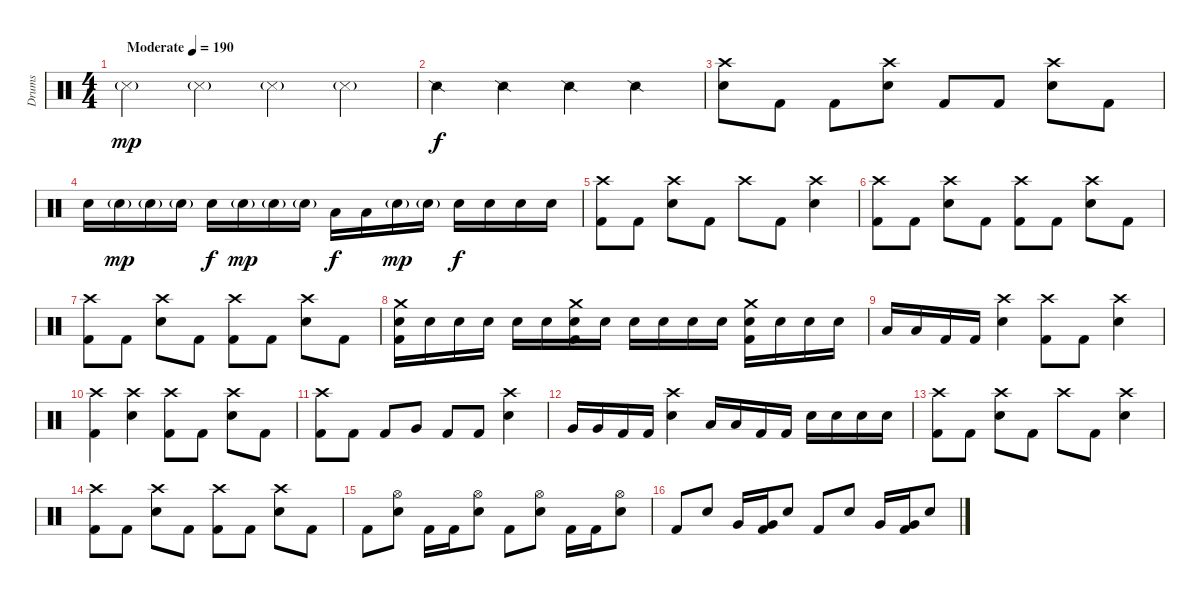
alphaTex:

\track ("Drums" "Drums") {instrument percussion}
\staff {score}
\articulation defaults
\ts (4 4)
\tempo (190 "Moderate")
\clef neutral
\ks c "Metronome (hit)"{g}.4{dy mp} "Metronome (hit)"{g}.4 "Metronome (hit)"{g}.4 "Metronome (hit)"{g}.4
|
"Snare (side stick) 2".4{dy f} "Snare (side stick) 2".4 "Snare (side stick) 2".4 "Snare (side stick) 2".4 |
("Crash high (hit)" "Electric Snare (hit)").8 "Kick (hit) 2".8 "Kick (hit) 2".8 ("Crash high (hit)" "Electric Snare (hit)").8 "Kick (hit) 2".8 "Kick (hit) 2".8 ("Crash high (hit)" "Electric Snare (hit)").8 "Kick (hit) 2".8 |
"Electric Snare (hit)".16 "Electric Snare (hit)"{g}.16{dy mp} "Electric Snare (hit)"{g}.16 "Electric Snare (hit)"{g}.16 "Electric Snare (hit)".16{dy f} "Electric Snare (hit)"{g}.16{dy mp} "Electric Snare (hit)"{g}.16 "Electric Snare (hit)"{g}.16 "Low Floor Tom (hit)".16{dy f} "Low Floor Tom (hit)".16 "Electric Snare (hit)"{g}.16{dy mp} "Electric Snare (hit)"{g}.16 "Electric Snare (hit)".16{dy f} "Electric Snare (hit)".16 "Electric Snare (hit)".16 "Electric Snare (hit)".16 |
("Crash high (hit)" "Kick (hit) 2").8 "Kick (hit) 2".8 ("Crash high (hit)" "Electric Snare (hit)").8 "Kick (hit) 2".8 "Crash high (hit)".8 "Kick (hit) 2".8 ("Crash high (hit)" "Electric Snare (hit)").4 |
("Crash high (hit)" "Kick (hit) 2").8 "Kick (hit) 2".8 ("Crash high (hit)" "Electric Snare (hit)").8 "Kick (hit) 2".8 ("Crash high (hit)" "Kick (hit) 2").8 "Kick (hit) 2".8 ("Crash high (hit)" "Electric Snare (hit)").8 "Kick (hit) 2".8 |
("Crash high (hit)" "Kick (hit) 2").8 "Kick (hit) 2".8 ("Crash high (hit)" "Electric Snare (hit)").8 "Kick (hit) 2".8 ("Crash high (hit)" "Kick (hit) 2").8 "Kick (hit) 2".8 ("Crash high (hit)" "Electric Snare (hit)").8 "Kick (hit) 2".8 |
("Crash medium (hit)" "Electric Snare (hit)" "Kick (hit) 2").16 "Electric Snare (hit)".16 "Electric Snare (hit)".16 "Electric Snare (hit)".16 "Electric Snare (hit)".16 "Electric Snare (hit)".16 ("Crash medium (hit)" "Electric Snare (hit)" "Kick (hit) 2").16 "Electric Snare (hit)".16 "Electric Snare (hit)".16 "Electric Snare (hit)".16 "Electric Snare (hit)".16 "Electric Snare (hit)".16 ("Crash medium (hit)" "Electric Snare (hit)" "Kick (hit) 2").16 "Electric Snare (hit)".16 "Electric Snare (hit)".16 "Electric Snare (hit)".16 |
"Low Floor Tom (hit)".16 "Low Floor Tom (hit)".16 "Kick (hit) 2".16 "Kick (hit) 2".16 ("Crash high (hit)" "Electric Snare (hit)").4 ("Crash high (hit)" "Kick (hit) 2").8 "Kick (hit) 2".8 ("Crash high (hit)" "Electric Snare (hit)").4 |
("Crash high (hit)" "Kick (hit) 2").4 ("Crash high (hit)" "Electric Snare (hit)").4 ("Crash high (hit)" "Kick (hit) 2").8 "Kick (hit) 2".8 ("Crash high (hit)" "Electric Snare (hit)").8 "Kick (hit) 2".8 |
("Crash high (hit)" "Kick (hit) 2").8 "Kick (hit) 2".8 "Kick (hit) 2".8 "Very Low Tom (hit)".8 "Kick (hit) 2".8 "Kick (hit) 2".8 ("Crash high (hit)" "Electric Snare (hit)").4 |
"Very Low Tom (hit)".16 "Very Low Tom (hit)".16 "Kick (hit) 2".16 "Kick (hit) 2".16 ("Crash high (hit)" "Electric Snare (hit)").4 "Low Floor Tom (hit)".16 "Low Floor Tom (hit)".16 "Kick (hit) 2".16 "Kick (hit) 2".16 "Electric Snare (hit)".16 "Electric Snare (hit)".16 "Electric Snare (hit)".16 "Electric Snare (hit)".16 |
("Crash high (hit)" "Kick (hit) 2").8 "Kick (hit) 2".8 ("Crash high (hit)" "Electric Snare (hit)").8 "Kick (hit) 2".8 "Crash high (hit)".8 "Kick (hit) 2".8 ("Crash high (hit)" "Electric Snare (hit)").4 |
("Crash high (hit)" "Kick (hit) 2").8 "Kick (hit) 2".8 ("Crash high (hit)" "Electric Snare (hit)").8 "Kick (hit) 2".8 ("Crash high (hit)" "Kick (hit) 2").8 "Kick (hit) 2".8 ("Crash high (hit)" "Electric Snare (hit)").8 "Kick (hit) 2".8 |
"Kick (hit) 2".8 ("Hi-Hat (open)" "Electric Snare (hit)").8 "Kick (hit) 2".16 "Kick (hit) 2".16 ("Hi-Hat (open)" "Electric Snare (hit)").8 "Kick (hit) 2".8 ("Hi-Hat (open)" "Electric Snare (hit)").8 "Kick (hit) 2".16 "Kick (hit) 2".16 ("Hi-Hat (open)" "Electric Snare (hit)").8 |
"Kick (hit) 2".8 "Electric Snare (hit)".8 "Very Low Tom (hit)".16 ("Very Low Tom (hit)" "Kick (hit) 2").16 "Electric Snare (hit)".8 "Kick (hit) 2".8 "Electric Snare (hit)".8 "Very Low Tom (hit)".16 ("Very Low Tom (hit)" "Kick (hit) 2").16 "Electric Snare (hit)".8
